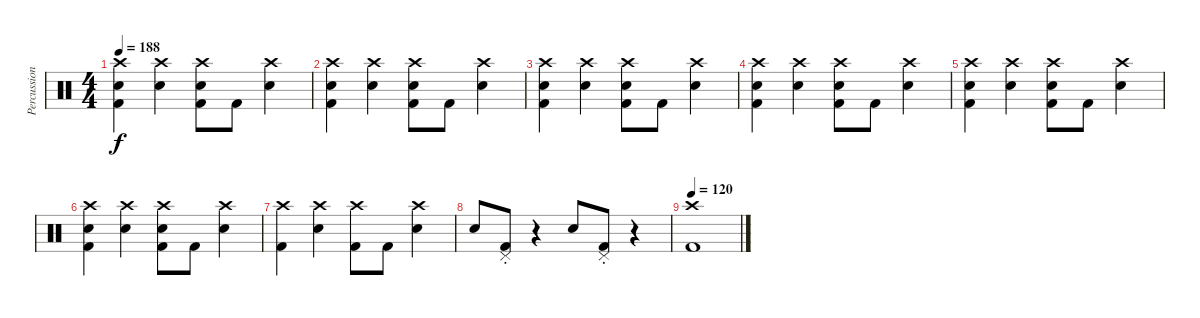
\track ("Percussions" "Percussion") {instrument percussion}
\staff {score}
\articulation defaults
\ts (4 4)
\tempo 188
\clef neutral
\ks c
("Electric Snare (hit)" "Kick (hit) 2" "Crash high (hit)").4{dy f} ("Electric Snare (hit)" "Crash high (hit)").4 ("Electric Snare (hit)" "Kick (hit) 2" "Crash high (hit)").8 "Kick (hit) 2".8 ("Electric Snare (hit)" "Crash high (hit)").4 |
("Electric Snare (hit)" "Kick (hit) 2" "Crash high (hit)").4 ("Electric Snare (hit)" "Crash high (hit)").4 ("Electric Snare (hit)" "Kick (hit) 2" "Crash high (hit)").8 "Kick (hit) 2".8 ("Electric Snare (hit)" "Crash high (hit)").4 |
("Electric Snare (hit)" "Kick (hit) 2" "Crash high (hit)").4 ("Electric Snare (hit)" "Crash high (hit)").4 ("Electric Snare (hit)" "Kick (hit) 2" "Crash high (hit)").8 "Kick (hit) 2".8 ("Electric Snare (hit)" "Crash high (hit)").4 |
("Electric Snare (hit)" "Kick (hit) 2" "Crash high (hit)").4 ("Electric Snare (hit)" "Crash high (hit)").4 ("Electric Snare (hit)" "Kick (hit) 2" "Crash high (hit)").8 "Kick (hit) 2".8 ("Electric Snare (hit)" "Crash high (hit)").4 |
("Electric Snare (hit)" "Kick (hit) 2" "Crash high (hit)").4 ("Electric Snare (hit)" "Crash high (hit)").4 ("Electric Snare (hit)" "Kick (hit) 2" "Crash high (hit)").8 "Kick (hit) 2".8 ("Electric Snare (hit)" "Crash high (hit)").4 |
("Electric Snare (hit)" "Kick (hit) 2" "Crash high (hit)").4 ("Electric Snare (hit)" "Crash high (hit)").4 ("Electric Snare (hit)" "Kick (hit) 2" "Crash high (hit)").8 "Kick (hit) 2".8 ("Electric Snare (hit)" "Crash high (hit)").4 |
("Kick (hit) 2" "Crash high (hit)").4 ("Electric Snare (hit)" "Crash high (hit)").4 ("Kick (hit) 2" "Crash high (hit)").8 "Kick (hit) 2".8 ("Electric Snare (hit)" "Crash high (hit)").4 |
"Electric Snare (hit)".8 ("Pedal Hi-Hat (hit)"{st} "Kick (hit) 2").8 r.4 "Electric Snare (hit)".8 ("Pedal Hi-Hat (hit)"{st} "Kick (hit) 2").8 r.4 |
\tempo 120
("Crash high (hit)" "Kick (hit) 2").1
